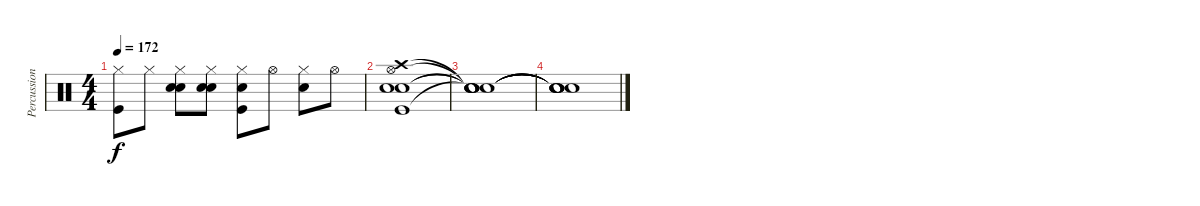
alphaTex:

\track ("Percussions" "Percussion") {instrument percussion}
\staff {score}
\articulation defaults
\ts (4 4)
\tempo 172
\clef neutral
\ks c
("Hi-Hat (closed)" "Kick (hit)").8{dy f} "Hi-Hat (closed)".8 ("Electric Snare (hit)" "Hi-Hat (closed)" "Snare (hit) 2").8 ("Electric Snare (hit)" "Hi-Hat (closed)" "Snare (hit) 2").8 ("Snare (hit) 2" "Hi-Hat (closed)" "Kick (hit)").8 "Hi-Hat (open)".8 ("Snare (hit) 2" "Hi-Hat (closed)").8 "Hi-Hat (open)".8 |
("Crash high (hit)" "Hi-Hat (open)" "Electric Snare (hit)" "Snare (hit) 2" "Kick (hit)").1 |
("Snare (hit)"{t} "Snare (hit)"{t} "Snare (hit)"{t} "Snare (hit)"{t} "Snare (hit)"{t}).1 |
("Snare (hit)"{t} "Snare (hit)"{t} "Snare (hit)"{t} "Snare (hit)"{t} "Snare (hit)"{t}).1
